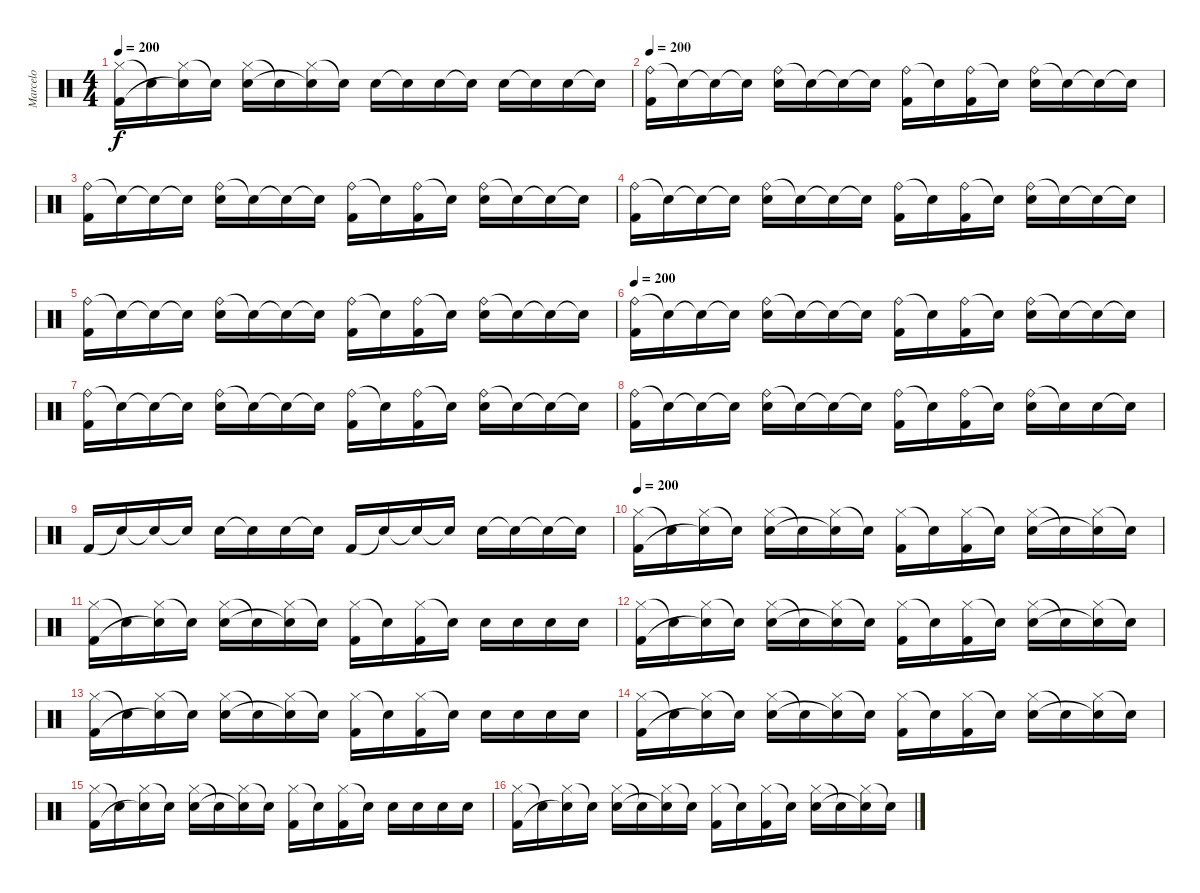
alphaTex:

\track ("Marcelo" "Marcelo") {instrument percussion}
\staff {score}
\articulation defaults
\ts (4 4)
\tempo 200
\clef neutral
\ks c
("Hi-Hat (closed)" "Kick (hit) 2").16{dy f} "Snare (hit)"{t}.16 ("Hi-Hat (closed)" "Snare (hit)"{t}).16 "Snare (hit)"{t}.16 ("Hi-Hat (closed)" "Snare (hit) 2").16 "Snare (hit)"{t}.16 ("Hi-Hat (closed)" "Snare (hit)"{t}).16 "Snare (hit)"{t}.16 "Snare (hit) 2".16 "Snare (hit)"{t}.16 "Snare (hit) 2".16 "Snare (hit)"{t}.16 "Snare (hit) 2".16 "Snare (hit)"{t}.16 "Snare (hit) 2".16 "Snare (hit)"{t}.16 |
\tempo 200
("Ride (bell)" "Kick (hit) 2").16 "Snare (hit)"{t}.16 "Snare (hit)"{t}.16 "Snare (hit) 2"{t}.16 ("Ride (bell)" "Snare (hit) 2").16 "Snare (hit)"{t}.16 "Snare (hit)"{t}.16 "Snare (hit)"{t}.16 ("Ride (bell)" "Kick (hit) 2").16 "Snare (hit)"{t}.16 ("Ride (bell)" "Kick (hit) 2").16 "Snare (hit) 2"{t}.16 ("Ride (bell)" "Snare (hit) 2").16 "Snare (hit)"{t}.16 "Snare (hit)"{t}.16 "Snare (hit)"{t}.16 |
("Ride (bell)" "Kick (hit) 2").16 "Snare (hit)"{t}.16 "Snare (hit)"{t}.16 "Snare (hit) 2"{t}.16 ("Ride (bell)" "Snare (hit) 2").16 "Snare (hit)"{t}.16 "Snare (hit)"{t}.16 "Snare (hit)"{t}.16 ("Ride (bell)" "Kick (hit) 2").16 "Snare (hit)"{t}.16 ("Ride (bell)" "Kick (hit) 2").16 "Snare (hit) 2"{t}.16 ("Ride (bell)" "Snare (hit) 2").16 "Snare (hit)"{t}.16 "Snare (hit)"{t}.16 "Snare (hit)"{t}.16 |
("Ride (bell)" "Kick (hit) 2").16 "Snare (hit)"{t}.16 "Snare (hit)"{t}.16 "Snare (hit) 2"{t}.16 ("Ride (bell)" "Snare (hit) 2").16 "Snare (hit)"{t}.16 "Snare (hit)"{t}.16 "Snare (hit)"{t}.16 ("Ride (bell)" "Kick (hit) 2").16 "Snare (hit)"{t}.16 ("Ride (bell)" "Kick (hit) 2").16 "Snare (hit) 2"{t}.16 ("Ride (bell)" "Snare (hit) 2").16 "Snare (hit)"{t}.16 "Snare (hit)"{t}.16 "Snare (hit)"{t}.16 |
("Ride (bell)" "Kick (hit) 2").16 "Snare (hit)"{t}.16 "Snare (hit)"{t}.16 "Snare (hit) 2"{t}.16 ("Ride (bell)" "Snare (hit) 2").16 "Snare (hit)"{t}.16 "Snare (hit)"{t}.16 "Snare (hit)"{t}.16 ("Ride (bell)" "Kick (hit) 2").16 "Snare (hit)"{t}.16 ("Ride (bell)" "Kick (hit) 2").16 "Snare (hit) 2"{t}.16 ("Ride (bell)" "Snare (hit) 2").16 "Snare (hit)"{t}.16 "Snare (hit)"{t}.16 "Snare (hit)"{t}.16 |
\tempo 200
("Ride (bell)" "Kick (hit) 2").16 "Snare (hit)"{t}.16 "Snare (hit)"{t}.16 "Snare (hit) 2"{t}.16 ("Ride (bell)" "Snare (hit) 2").16 "Snare (hit)"{t}.16 "Snare (hit)"{t}.16 "Snare (hit)"{t}.16 ("Ride (bell)" "Kick (hit) 2").16 "Snare (hit)"{t}.16 ("Ride (bell)" "Kick (hit) 2").16 "Snare (hit) 2"{t}.16 ("Ride (bell)" "Snare (hit) 2").16 "Snare (hit)"{t}.16 "Snare (hit)"{t}.16 "Snare (hit)"{t}.16 |
("Ride (bell)" "Kick (hit) 2").16 "Snare (hit)"{t}.16 "Snare (hit)"{t}.16 "Snare (hit) 2"{t}.16 ("Ride (bell)" "Snare (hit) 2").16 "Snare (hit)"{t}.16 "Snare (hit)"{t}.16 "Snare (hit)"{t}.16 ("Ride (bell)" "Kick (hit) 2").16 "Snare (hit)"{t}.16 ("Ride (bell)" "Kick (hit) 2").16 "Snare (hit) 2"{t}.16 ("Ride (bell)" "Snare (hit) 2").16 "Snare (hit)"{t}.16 "Snare (hit)"{t}.16 "Snare (hit)"{t}.16 |
("Ride (bell)" "Kick (hit) 2").16 "Snare (hit)"{t}.16 "Snare (hit)"{t}.16 "Snare (hit) 2"{t}.16 ("Ride (bell)" "Snare (hit) 2").16 "Snare (hit)"{t}.16 "Snare (hit)"{t}.16 "Snare (hit)"{t}.16 ("Ride (bell)" "Kick (hit) 2").16 "Snare (hit)"{t}.16 ("Ride (bell)" "Kick (hit) 2").16 "Snare (hit) 2"{t}.16 ("Ride (bell)" "Snare (hit) 2").16 "Snare (hit)"{t}.16 "Snare (hit) 2".16 "Snare (hit)"{t}.16 |
"Kick (hit) 2".16 "Snare (hit)"{t}.16 "Snare (hit) 2"{t}.16 "Snare (hit)"{t}.16 "Snare (hit) 2".16 "Snare (hit)"{t}.16 "Snare (hit) 2".16 "Snare (hit)"{t}.16 "Kick (hit) 2".16 "Snare (hit)"{t}.16 "Snare (hit)"{t}.16 "Snare (hit)"{t}.16 "Snare (hit) 2".16 "Snare (hit)"{t}.16 "Snare (hit)"{t}.16 "Snare (hit)"{t}.16 |
\tempo 200
("Hi-Hat (closed)" "Kick (hit) 2").16 "Snare (hit)"{t}.16 ("Hi-Hat (closed)" "Snare (hit)"{t}).16 "Snare (hit) 2"{t}.16 ("Hi-Hat (closed)" "Snare (hit) 2").16 "Snare (hit)"{t}.16 ("Hi-Hat (closed)" "Snare (hit)"{t}).16 "Snare (hit)"{t}.16 ("Hi-Hat (closed)" "Kick (hit) 2").16 "Snare (hit)"{t}.16 ("Hi-Hat (closed)" "Kick (hit) 2").16 "Snare (hit) 2"{t}.16 ("Hi-Hat (closed)" "Snare (hit) 2").16 "Snare (hit)"{t}.16 ("Hi-Hat (closed)" "Snare (hit)"{t}).16 "Snare (hit)"{t}.16 |
("Hi-Hat (closed)" "Kick (hit) 2").16 "Snare (hit)"{t}.16 ("Hi-Hat (closed)" "Snare (hit)"{t}).16 "Snare (hit) 2"{t}.16 ("Hi-Hat (closed)" "Snare (hit) 2").16 "Snare (hit)"{t}.16 ("Hi-Hat (closed)" "Snare (hit)"{t}).16 "Snare (hit)"{t}.16 ("Hi-Hat (closed)" "Kick (hit) 2").16 "Snare (hit)"{t}.16 ("Hi-Hat (closed)" "Kick (hit) 2").16 "Snare (hit) 2"{t}.16 "Snare (hit) 2".16 "Snare (hit) 2".16 "Snare (hit) 2".16 "Snare (hit) 2".16 |
("Hi-Hat (closed)" "Kick (hit) 2").16 "Snare (hit)"{t}.16 ("Hi-Hat (closed)" "Snare (hit)"{t}).16 "Snare (hit) 2"{t}.16 ("Hi-Hat (closed)" "Snare (hit) 2").16 "Snare (hit)"{t}.16 ("Hi-Hat (closed)" "Snare (hit)"{t}).16 "Snare (hit)"{t}.16 ("Hi-Hat (closed)" "Kick (hit) 2").16 "Snare (hit)"{t}.16 ("Hi-Hat (closed)" "Kick (hit) 2").16 "Snare (hit) 2"{t}.16 ("Hi-Hat (closed)" "Snare (hit) 2").16 "Snare (hit)"{t}.16 ("Hi-Hat (closed)" "Snare (hit)"{t}).16 "Snare (hit)"{t}.16 |
("Hi-Hat (closed)" "Kick (hit) 2").16 "Snare (hit)"{t}.16 ("Hi-Hat (closed)" "Snare (hit)"{t}).16 "Snare (hit) 2"{t}.16 ("Hi-Hat (closed)" "Snare (hit) 2").16 "Snare (hit)"{t}.16 ("Hi-Hat (closed)" "Snare (hit)"{t}).16 "Snare (hit)"{t}.16 ("Hi-Hat (closed)" "Kick (hit) 2").16 "Snare (hit)"{t}.16 ("Hi-Hat (closed)" "Kick (hit) 2").16 "Snare (hit) 2"{t}.16 "Snare (hit) 2".16 "Snare (hit) 2".16 "Snare (hit) 2".16 "Snare (hit) 2".16 |
("Hi-Hat (closed)" "Kick (hit) 2").16 "Snare (hit)"{t}.16 ("Hi-Hat (closed)" "Snare (hit)"{t}).16 "Snare (hit) 2"{t}.16 ("Hi-Hat (closed)" "Snare (hit) 2").16 "Snare (hit)"{t}.16 ("Hi-Hat (closed)" "Snare (hit)"{t}).16 "Snare (hit)"{t}.16 ("Hi-Hat (closed)" "Kick (hit) 2").16 "Snare (hit)"{t}.16 ("Hi-Hat (closed)" "Kick (hit) 2").16 "Snare (hit) 2"{t}.16 ("Hi-Hat (closed)" "Snare (hit) 2").16 "Snare (hit)"{t}.16 ("Hi-Hat (closed)" "Snare (hit)"{t}).16 "Snare (hit)"{t}.16 |
("Hi-Hat (closed)" "Kick (hit) 2").16 "Snare (hit)"{t}.16 ("Hi-Hat (closed)" "Snare (hit)"{t}).16 "Snare (hit) 2"{t}.16 ("Hi-Hat (closed)" "Snare (hit) 2").16 "Snare (hit)"{t}.16 ("Hi-Hat (closed)" "Snare (hit)"{t}).16 "Snare (hit)"{t}.16 ("Hi-Hat (closed)" "Kick (hit) 2").16 "Snare (hit)"{t}.16 ("Hi-Hat (closed)" "Kick (hit) 2").16 "Snare (hit) 2"{t}.16 "Snare (hit) 2".16 "Snare (hit) 2".16 "Snare (hit) 2".16 "Snare (hit) 2".16 |
("Hi-Hat (closed)" "Kick (hit) 2").16 "Snare (hit)"{t}.16 ("Hi-Hat (closed)" "Snare (hit)"{t}).16 "Snare (hit) 2"{t}.16 ("Hi-Hat (closed)" "Snare (hit) 2").16 "Snare (hit)"{t}.16 ("Hi-Hat (closed)" "Snare (hit)"{t}).16 "Snare (hit)"{t}.16 ("Hi-Hat (closed)" "Kick (hit) 2").16 "Snare (hit)"{t}.16 ("Hi-Hat (closed)" "Kick (hit) 2").16 "Snare (hit) 2"{t}.16 ("Hi-Hat (closed)" "Snare (hit) 2").16 "Snare (hit)"{t}.16 ("Hi-Hat (closed)" "Snare (hit)"{t}).16 "Snare (hit)"{t}.16
